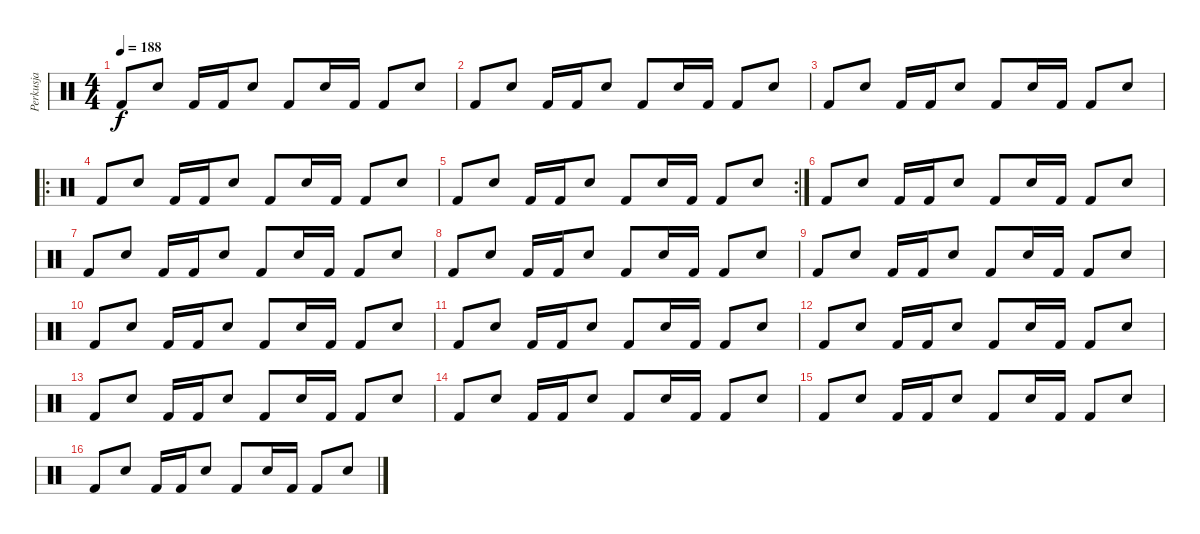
\track ("Perkusja" "Perkusja") {instrument percussion}
\staff {score}
\articulation defaults
\ts (4 4)
\tempo 188
\clef neutral
\ks c "Kick (hit) 2".8{dy f} "Snare (hit) 2".8 "Kick (hit) 2".16 "Kick (hit) 2".16 "Snare (hit) 2".8 "Kick (hit) 2".8 "Snare (hit) 2".16 "Kick (hit) 2".16 "Kick (hit) 2".8 "Snare (hit) 2".8
|
"Kick (hit) 2".8 "Snare (hit) 2".8 "Kick (hit) 2".16 "Kick (hit) 2".16 "Snare (hit) 2".8 "Kick (hit) 2".8 "Snare (hit) 2".16 "Kick (hit) 2".16 "Kick (hit) 2".8 "Snare (hit) 2".8 |
"Kick (hit) 2".8 "Snare (hit) 2".8 "Kick (hit) 2".16 "Kick (hit) 2".16 "Snare (hit) 2".8 "Kick (hit) 2".8 "Snare (hit) 2".16 "Kick (hit) 2".16 "Kick (hit) 2".8 "Snare (hit) 2".8 |
\ro "Kick (hit) 2".8 "Snare (hit) 2".8 "Kick (hit) 2".16 "Kick (hit) 2".16 "Snare (hit) 2".8 "Kick (hit) 2".8 "Snare (hit) 2".16 "Kick (hit) 2".16 "Kick (hit) 2".8 "Snare (hit) 2".8
|
\rc 2 "Kick (hit) 2".8 "Snare (hit) 2".8 "Kick (hit) 2".16 "Kick (hit) 2".16 "Snare (hit) 2".8 "Kick (hit) 2".8 "Snare (hit) 2".16 "Kick (hit) 2".16 "Kick (hit) 2".8 "Snare (hit) 2".8
|
"Kick (hit) 2".8 "Snare (hit) 2".8 "Kick (hit) 2".16 "Kick (hit) 2".16 "Snare (hit) 2".8 "Kick (hit) 2".8 "Snare (hit) 2".16 "Kick (hit) 2".16 "Kick (hit) 2".8 "Snare (hit) 2".8 |
"Kick (hit) 2".8 "Snare (hit) 2".8 "Kick (hit) 2".16 "Kick (hit) 2".16 "Snare (hit) 2".8 "Kick (hit) 2".8 "Snare (hit) 2".16 "Kick (hit) 2".16 "Kick (hit) 2".8 "Snare (hit) 2".8 |
"Kick (hit) 2".8 "Snare (hit) 2".8 "Kick (hit) 2".16 "Kick (hit) 2".16 "Snare (hit) 2".8 "Kick (hit) 2".8 "Snare (hit) 2".16 "Kick (hit) 2".16 "Kick (hit) 2".8 "Snare (hit) 2".8 |
"Kick (hit) 2".8 "Snare (hit) 2".8 "Kick (hit) 2".16 "Kick (hit) 2".16 "Snare (hit) 2".8 "Kick (hit) 2".8 "Snare (hit) 2".16 "Kick (hit) 2".16 "Kick (hit) 2".8 "Snare (hit) 2".8 |
"Kick (hit) 2".8 "Snare (hit) 2".8 "Kick (hit) 2".16 "Kick (hit) 2".16 "Snare (hit) 2".8 "Kick (hit) 2".8 "Snare (hit) 2".16 "Kick (hit) 2".16 "Kick (hit) 2".8 "Snare (hit) 2".8 |
"Kick (hit) 2".8 "Snare (hit) 2".8 "Kick (hit) 2".16 "Kick (hit) 2".16 "Snare (hit) 2".8 "Kick (hit) 2".8 "Snare (hit) 2".16 "Kick (hit) 2".16 "Kick (hit) 2".8 "Snare (hit) 2".8 |
"Kick (hit) 2".8 "Snare (hit) 2".8 "Kick (hit) 2".16 "Kick (hit) 2".16 "Snare (hit) 2".8 "Kick (hit) 2".8 "Snare (hit) 2".16 "Kick (hit) 2".16 "Kick (hit) 2".8 "Snare (hit) 2".8 |
"Kick (hit) 2".8 "Snare (hit) 2".8 "Kick (hit) 2".16 "Kick (hit) 2".16 "Snare (hit) 2".8 "Kick (hit) 2".8 "Snare (hit) 2".16 "Kick (hit) 2".16 "Kick (hit) 2".8 "Snare (hit) 2".8 |
"Kick (hit) 2".8 "Snare (hit) 2".8 "Kick (hit) 2".16 "Kick (hit) 2".16 "Snare (hit) 2".8 "Kick (hit) 2".8 "Snare (hit) 2".16 "Kick (hit) 2".16 "Kick (hit) 2".8 "Snare (hit) 2".8 |
"Kick (hit) 2".8 "Snare (hit) 2".8 "Kick (hit) 2".16 "Kick (hit) 2".16 "Snare (hit) 2".8 "Kick (hit) 2".8 "Snare (hit) 2".16 "Kick (hit) 2".16 "Kick (hit) 2".8 "Snare (hit) 2".8 |
"Kick (hit) 2".8 "Snare (hit) 2".8 "Kick (hit) 2".16 "Kick (hit) 2".16 "Snare (hit) 2".8 "Kick (hit) 2".8 "Snare (hit) 2".16 "Kick (hit) 2".16 "Kick (hit) 2".8 "Snare (hit) 2".8
